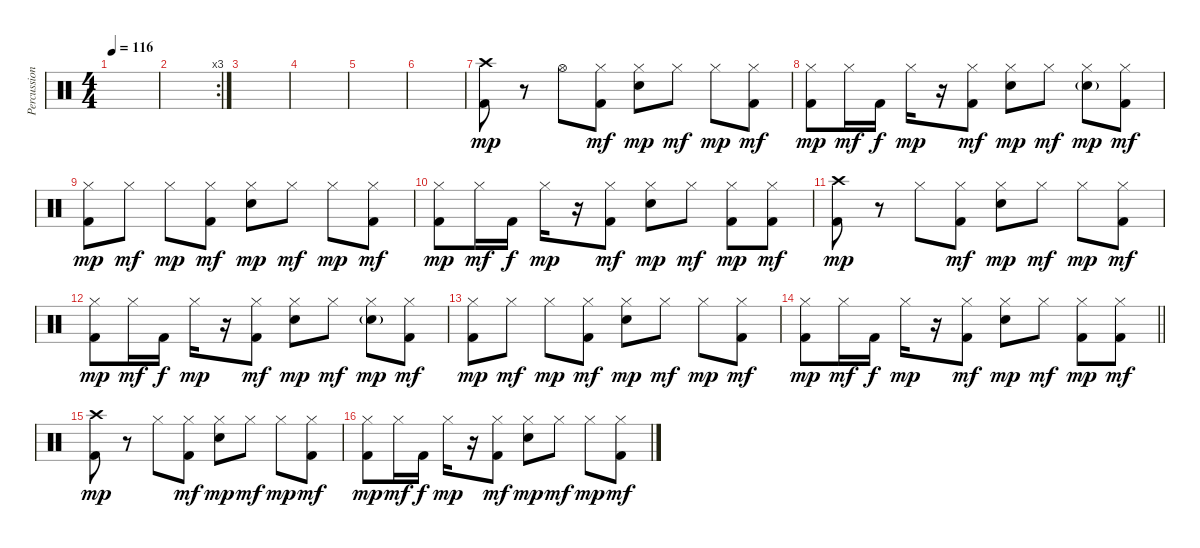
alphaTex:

\track ("Percussion (Moose)" "Percussion") {instrument percussion}
\staff {score}
\articulation defaults
\ts (4 4)
\tempo 116
\clef neutral
\ks c
|
\rc 3
|
|
|
|
|
("Kick (hit) 2" "Crash high (hit)").8{dy mp} r.8 "Hi-Hat (open)".8 ("Kick (hit) 2" "Hi-Hat (closed)").8{dy mf} ("Snare (hit) 2" "Hi-Hat (closed)").8{dy mp} "Hi-Hat (closed)".8{dy mf} "Hi-Hat (closed)".8{dy mp} ("Kick (hit) 2" "Hi-Hat (closed)").8{dy mf} |
("Kick (hit) 2" "Hi-Hat (closed)").8{dy mp} "Hi-Hat (closed)".16{dy mf} "Kick (hit) 2".16{dy f} "Hi-Hat (closed)".16{dy mp} r.16 ("Kick (hit) 2" "Hi-Hat (closed)").8{dy mf} ("Snare (hit) 2" "Hi-Hat (closed)").8{dy mp} "Hi-Hat (closed)".8{dy mf} ("Snare (hit) 2"{g} "Hi-Hat (closed)").8{dy mp} ("Kick (hit) 2" "Hi-Hat (closed)").8{dy mf} |
("Kick (hit) 2" "Hi-Hat (closed)").8{dy mp} "Hi-Hat (closed)".8{dy mf} "Hi-Hat (closed)".8{dy mp} ("Kick (hit) 2" "Hi-Hat (closed)").8{dy mf} ("Snare (hit) 2" "Hi-Hat (closed)").8{dy mp} "Hi-Hat (closed)".8{dy mf} "Hi-Hat (closed)".8{dy mp} ("Kick (hit) 2" "Hi-Hat (closed)").8{dy mf} |
("Kick (hit) 2" "Hi-Hat (closed)").8{dy mp} "Hi-Hat (closed)".16{dy mf} "Kick (hit) 2".16{dy f} "Hi-Hat (closed)".16{dy mp} r.16 ("Kick (hit) 2" "Hi-Hat (closed)").8{dy mf} ("Snare (hit) 2" "Hi-Hat (closed)").8{dy mp} "Hi-Hat (closed)".8{dy mf} ("Kick (hit) 2" "Hi-Hat (closed)").8{dy mp} ("Kick (hit) 2" "Hi-Hat (closed)").8{dy mf} |
("Kick (hit) 2" "Crash high (hit)").8{dy mp} r.8 "Hi-Hat (closed)".8 ("Kick (hit) 2" "Hi-Hat (closed)").8{dy mf} ("Snare (hit) 2" "Hi-Hat (closed)").8{dy mp} "Hi-Hat (closed)".8{dy mf} "Hi-Hat (closed)".8{dy mp} ("Kick (hit) 2" "Hi-Hat (closed)").8{dy mf} |
("Kick (hit) 2" "Hi-Hat (closed)").8{dy mp} "Hi-Hat (closed)".16{dy mf} "Kick (hit) 2".16{dy f} "Hi-Hat (closed)".16{dy mp} r.16 ("Kick (hit) 2" "Hi-Hat (closed)").8{dy mf} ("Snare (hit) 2" "Hi-Hat (closed)").8{dy mp} "Hi-Hat (closed)".8{dy mf} ("Snare (hit) 2"{g} "Hi-Hat (closed)").8{dy mp} ("Kick (hit) 2" "Hi-Hat (closed)").8{dy mf} |
("Kick (hit) 2" "Hi-Hat (closed)").8{dy mp} "Hi-Hat (closed)".8{dy mf} "Hi-Hat (closed)".8{dy mp} ("Kick (hit) 2" "Hi-Hat (closed)").8{dy mf} ("Snare (hit) 2" "Hi-Hat (closed)").8{dy mp} "Hi-Hat (closed)".8{dy mf} "Hi-Hat (closed)".8{dy mp} ("Kick (hit) 2" "Hi-Hat (closed)").8{dy mf} |
\barLineRight lightlight
("Kick (hit) 2" "Hi-Hat (closed)").8{dy mp} "Hi-Hat (closed)".16{dy mf} "Kick (hit) 2".16{dy f} "Hi-Hat (closed)".16{dy mp} r.16 ("Kick (hit) 2" "Hi-Hat (closed)").8{dy mf} ("Snare (hit) 2" "Hi-Hat (closed)").8{dy mp} "Hi-Hat (closed)".8{dy mf} ("Kick (hit) 2" "Hi-Hat (closed)").8{dy mp} ("Kick (hit) 2" "Hi-Hat (closed)").8{dy mf} |
("Kick (hit) 2" "Crash high (hit)").8{dy mp} r.8 "Hi-Hat (closed)".8 ("Kick (hit) 2" "Hi-Hat (closed)").8{dy mf} ("Snare (hit) 2" "Hi-Hat (closed)").8{dy mp} "Hi-Hat (closed)".8{dy mf} "Hi-Hat (closed)".8{dy mp} ("Kick (hit) 2" "Hi-Hat (closed)").8{dy mf} |
("Kick (hit) 2" "Hi-Hat (closed)").8{dy mp} "Hi-Hat (closed)".16{dy mf} "Kick (hit) 2".16{dy f} "Hi-Hat (closed)".16{dy mp} r.16 ("Kick (hit) 2" "Hi-Hat (closed)").8{dy mf} ("Snare (hit) 2" "Hi-Hat (closed)").8{dy mp} "Hi-Hat (closed)".8{dy mf} "Hi-Hat (closed)".8{dy mp} ("Kick (hit) 2" "Hi-Hat (closed)").8{dy mf}
